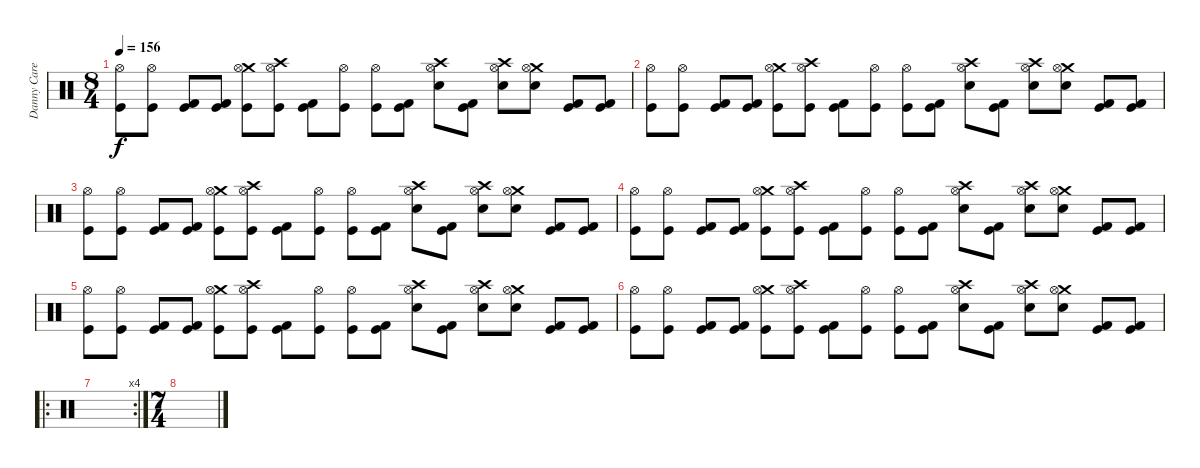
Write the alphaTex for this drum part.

\track ("Danny Carey " "Danny Care") {instrument percussion}
\staff {score}
\articulation defaults
\ts (8 4)
\tempo 156
\clef neutral
\ks c
("Hi-Hat (open)" "Kick (hit)").8{dy f} ("Hi-Hat (open)" "Kick (hit)").8 ("Kick (hit) 2" "Kick (hit)").8 ("Kick (hit) 2" "Kick (hit)").8 ("Crash medium (hit)" "Hi-Hat (open)" "Kick (hit)").8 ("Crash high (hit)" "Hi-Hat (open)" "Kick (hit)").8 ("Kick (hit) 2" "Kick (hit)").8 ("Hi-Hat (open)" "Kick (hit)").8 ("Hi-Hat (open)" "Kick (hit)").8 ("Kick (hit) 2" "Kick (hit)").8 ("Crash high (hit)" "Hi-Hat (open)" "Snare (hit) 2").8 ("Kick (hit) 2" "Kick (hit)").8 ("Crash high (hit)" "Hi-Hat (open)" "Snare (hit) 2").8 ("Crash medium (hit)" "Hi-Hat (open)" "Snare (hit) 2").8 ("Kick (hit) 2" "Kick (hit)").8 ("Kick (hit) 2" "Kick (hit)").8 |
("Hi-Hat (open)" "Kick (hit)").8 ("Hi-Hat (open)" "Kick (hit)").8 ("Kick (hit) 2" "Kick (hit)").8 ("Kick (hit) 2" "Kick (hit)").8 ("Crash medium (hit)" "Hi-Hat (open)" "Kick (hit)").8 ("Crash high (hit)" "Hi-Hat (open)" "Kick (hit)").8 ("Kick (hit) 2" "Kick (hit)").8 ("Hi-Hat (open)" "Kick (hit)").8 ("Hi-Hat (open)" "Kick (hit)").8 ("Kick (hit) 2" "Kick (hit)").8 ("Crash high (hit)" "Hi-Hat (open)" "Snare (hit) 2").8 ("Kick (hit) 2" "Kick (hit)").8 ("Crash high (hit)" "Hi-Hat (open)" "Snare (hit) 2").8 ("Crash medium (hit)" "Hi-Hat (open)" "Snare (hit) 2").8 ("Kick (hit) 2" "Kick (hit)").8 ("Kick (hit) 2" "Kick (hit)").8 |
("Hi-Hat (open)" "Kick (hit)").8 ("Hi-Hat (open)" "Kick (hit)").8 ("Kick (hit) 2" "Kick (hit)").8 ("Kick (hit) 2" "Kick (hit)").8 ("Crash medium (hit)" "Hi-Hat (open)" "Kick (hit)").8 ("Crash high (hit)" "Hi-Hat (open)" "Kick (hit)").8 ("Kick (hit) 2" "Kick (hit)").8 ("Hi-Hat (open)" "Kick (hit)").8 ("Hi-Hat (open)" "Kick (hit)").8 ("Kick (hit) 2" "Kick (hit)").8 ("Crash high (hit)" "Hi-Hat (open)" "Snare (hit) 2").8 ("Kick (hit) 2" "Kick (hit)").8 ("Crash high (hit)" "Hi-Hat (open)" "Snare (hit) 2").8 ("Crash medium (hit)" "Hi-Hat (open)" "Snare (hit) 2").8 ("Kick (hit) 2" "Kick (hit)").8 ("Kick (hit) 2" "Kick (hit)").8 |
("Hi-Hat (open)" "Kick (hit)").8 ("Hi-Hat (open)" "Kick (hit)").8 ("Kick (hit) 2" "Kick (hit)").8 ("Kick (hit) 2" "Kick (hit)").8 ("Crash medium (hit)" "Hi-Hat (open)" "Kick (hit)").8 ("Crash high (hit)" "Hi-Hat (open)" "Kick (hit)").8 ("Kick (hit) 2" "Kick (hit)").8 ("Hi-Hat (open)" "Kick (hit)").8 ("Hi-Hat (open)" "Kick (hit)").8 ("Kick (hit) 2" "Kick (hit)").8 ("Crash high (hit)" "Hi-Hat (open)" "Snare (hit) 2").8 ("Kick (hit) 2" "Kick (hit)").8 ("Crash high (hit)" "Hi-Hat (open)" "Snare (hit) 2").8 ("Crash medium (hit)" "Hi-Hat (open)" "Snare (hit) 2").8 ("Kick (hit) 2" "Kick (hit)").8 ("Kick (hit) 2" "Kick (hit)").8 |
("Hi-Hat (open)" "Kick (hit)").8 ("Hi-Hat (open)" "Kick (hit)").8 ("Kick (hit) 2" "Kick (hit)").8 ("Kick (hit) 2" "Kick (hit)").8 ("Crash medium (hit)" "Hi-Hat (open)" "Kick (hit)").8 ("Crash high (hit)" "Hi-Hat (open)" "Kick (hit)").8 ("Kick (hit) 2" "Kick (hit)").8 ("Hi-Hat (open)" "Kick (hit)").8 ("Hi-Hat (open)" "Kick (hit)").8 ("Kick (hit) 2" "Kick (hit)").8 ("Crash high (hit)" "Hi-Hat (open)" "Snare (hit) 2").8 ("Kick (hit) 2" "Kick (hit)").8 ("Crash high (hit)" "Hi-Hat (open)" "Snare (hit) 2").8 ("Crash medium (hit)" "Hi-Hat (open)" "Snare (hit) 2").8 ("Kick (hit) 2" "Kick (hit)").8 ("Kick (hit) 2" "Kick (hit)").8 |
("Hi-Hat (open)" "Kick (hit)").8 ("Hi-Hat (open)" "Kick (hit)").8 ("Kick (hit) 2" "Kick (hit)").8 ("Kick (hit) 2" "Kick (hit)").8 ("Crash medium (hit)" "Hi-Hat (open)" "Kick (hit)").8 ("Crash high (hit)" "Hi-Hat (open)" "Kick (hit)").8 ("Kick (hit) 2" "Kick (hit)").8 ("Hi-Hat (open)" "Kick (hit)").8 ("Hi-Hat (open)" "Kick (hit)").8 ("Kick (hit) 2" "Kick (hit)").8 ("Crash high (hit)" "Hi-Hat (open)" "Snare (hit) 2").8 ("Kick (hit) 2" "Kick (hit)").8 ("Crash high (hit)" "Hi-Hat (open)" "Snare (hit) 2").8 ("Crash medium (hit)" "Hi-Hat (open)" "Snare (hit) 2").8 ("Kick (hit) 2" "Kick (hit)").8 ("Kick (hit) 2" "Kick (hit)").8 |
\ro
\rc 4
|
\ts (7 4)
